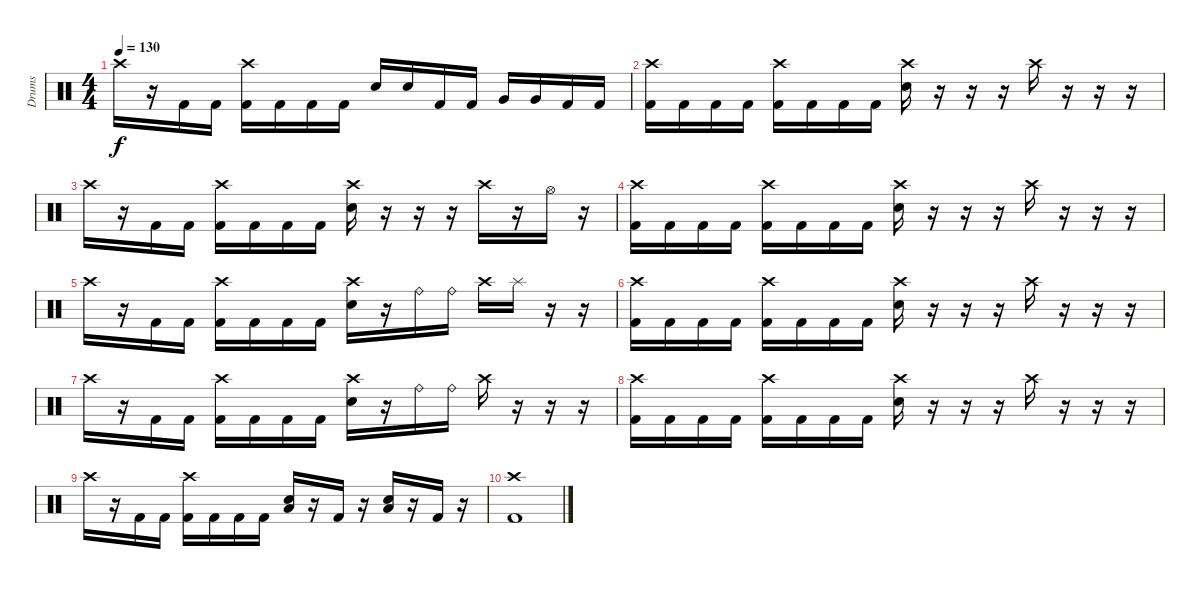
\track ("Drums" "Drums") {instrument percussion}
\staff {score}
\articulation defaults
\ts (4 4)
\tempo 130
\clef neutral
\ks c "Crash high (hit)".16{dy f}
r.16 "Kick (hit) 2".16 "Kick (hit) 2".16 ("Crash high (hit)" "Kick (hit) 2").16 "Kick (hit) 2".16 "Kick (hit) 2".16 "Kick (hit) 2".16 "Electric Snare (hit)".16 "Electric Snare (hit)".16 "Kick (hit) 2".16 "Kick (hit) 2".16 "Very Low Tom (hit)".16 "Very Low Tom (hit)".16 "Kick (hit) 2".16 "Kick (hit) 2".16 |
("Crash high (hit)" "Kick (hit) 2").16 "Kick (hit) 2".16 "Kick (hit) 2".16 "Kick (hit) 2".16 ("Crash high (hit)" "Kick (hit) 2").16 "Kick (hit) 2".16 "Kick (hit) 2".16 "Kick (hit) 2".16 ("Crash high (hit)" "Electric Snare (hit)").16 r.16 r.16 r.16 "Crash high (hit)".16 r.16 r.16 r.16 |
"Crash high (hit)".16 r.16 "Kick (hit) 2".16 "Kick (hit) 2".16 ("Crash high (hit)" "Kick (hit) 2").16 "Kick (hit) 2".16 "Kick (hit) 2".16 "Kick (hit) 2".16 ("Crash high (hit)" "Electric Snare (hit)").16 r.16 r.16 r.16 "Crash high (hit)".16 r.16 "Hi-Hat (open)".16 r.16 |
("Crash high (hit)" "Kick (hit) 2").16 "Kick (hit) 2".16 "Kick (hit) 2".16 "Kick (hit) 2".16 ("Crash high (hit)" "Kick (hit) 2").16 "Kick (hit) 2".16 "Kick (hit) 2".16 "Kick (hit) 2".16 ("Crash high (hit)" "Electric Snare (hit)").16 r.16 r.16 r.16 "Crash high (hit)".16 r.16 r.16 r.16 |
"Crash high (hit)".16 r.16 "Kick (hit) 2".16 "Kick (hit) 2".16 ("Crash high (hit)" "Kick (hit) 2").16 "Kick (hit) 2".16 "Kick (hit) 2".16 "Kick (hit) 2".16 ("Crash high (hit)" "Electric Snare (hit)").16 r.16 "Ride (bell)".16 "Ride (bell)".16 "Crash high (hit)".16 "Splash (hit)".16 r.16 r.16 |
("Crash high (hit)" "Kick (hit) 2").16 "Kick (hit) 2".16 "Kick (hit) 2".16 "Kick (hit) 2".16 ("Crash high (hit)" "Kick (hit) 2").16 "Kick (hit) 2".16 "Kick (hit) 2".16 "Kick (hit) 2".16 ("Crash high (hit)" "Electric Snare (hit)").16 r.16 r.16 r.16 "Crash high (hit)".16 r.16 r.16 r.16 |
"Crash high (hit)".16 r.16 "Kick (hit) 2".16 "Kick (hit) 2".16 ("Crash high (hit)" "Kick (hit) 2").16 "Kick (hit) 2".16 "Kick (hit) 2".16 "Kick (hit) 2".16 ("Crash high (hit)" "Electric Snare (hit)").16 r.16 "Ride (bell)".16 "Ride (bell)".16 "Crash high (hit)".16 r.16 r.16 r.16 |
("Crash high (hit)" "Kick (hit) 2").16 "Kick (hit) 2".16 "Kick (hit) 2".16 "Kick (hit) 2".16 ("Crash high (hit)" "Kick (hit) 2").16 "Kick (hit) 2".16 "Kick (hit) 2".16 "Kick (hit) 2".16 ("Crash high (hit)" "Electric Snare (hit)").16 r.16 r.16 r.16 "Crash high (hit)".16 r.16 r.16 r.16 |
"Crash high (hit)".16 r.16 "Kick (hit) 2".16 "Kick (hit) 2".16 ("Crash high (hit)" "Kick (hit) 2").16 "Kick (hit) 2".16 "Kick (hit) 2".16 "Kick (hit) 2".16 ("Electric Snare (hit)" "Low Floor Tom (hit)").16 r.16 "Kick (hit) 2".16 r.16 ("Electric Snare (hit)" "Low Floor Tom (hit)").16 r.16 "Kick (hit) 2".16 r.16 |
("Crash high (hit)" "Kick (hit) 2").1
